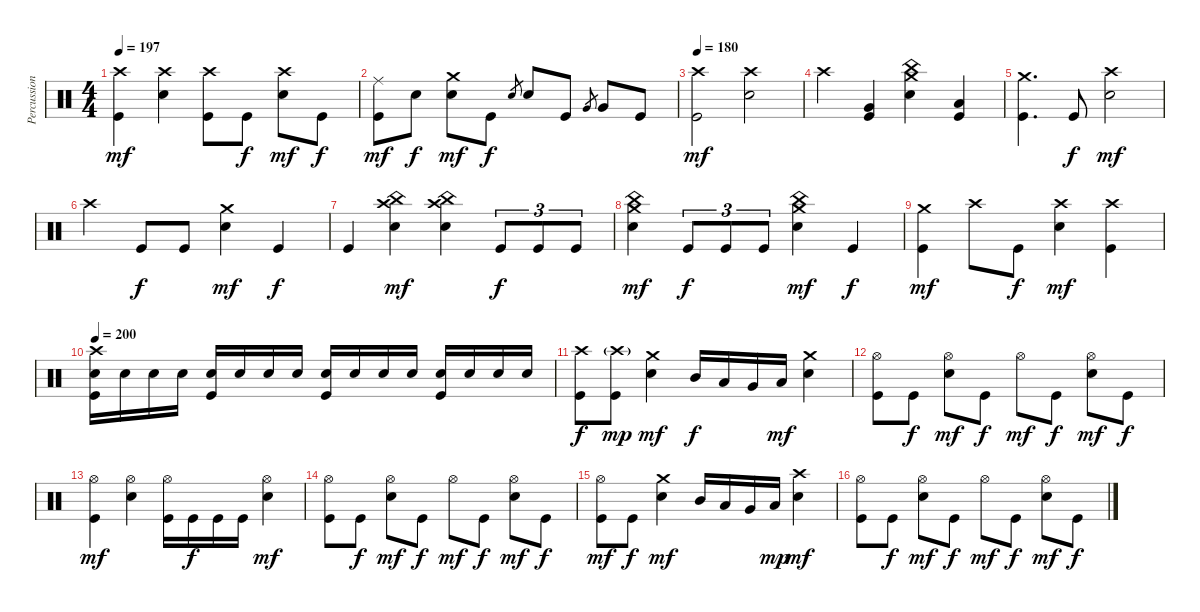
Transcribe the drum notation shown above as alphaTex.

\track ("Percussion" "Percussion") {instrument percussion}
\staff {score}
\articulation defaults
\ts (4 4)
\tempo 197
\clef neutral
\ks c
("Crash high (hit)" "Kick (hit)").4{dy mf} ("Crash high (hit)" "Electric Snare (hit)").4 ("Crash high (hit)" "Kick (hit)").8 "Kick (hit)".8{dy f} ("Crash high (hit)" "Electric Snare (hit)").8{dy mf} "Kick (hit)".8{dy f} |
("Ride (middle)" "Kick (hit)").8{dy mf} "Electric Snare (hit)".8{dy f} ("Crash medium (hit)" "Electric Snare (hit)").8{dy mf} "Kick (hit)".8{dy f} "Electric Snare (hit)".8{gr} "Electric Snare (hit)".8 "Kick (hit)".8 "Very Low Tom (hit)".8{gr} "Very Low Tom (hit)".8 "Kick (hit)".8 |
\tempo 180
("Crash high (hit)" "Kick (hit)").2{dy mf} ("Crash high (hit)" "Electric Snare (hit)").2 |
"Crash high (hit)".4 ("Very Low Tom (hit)" "Kick (hit)").4 ("China (hit)" "Crash medium (hit)" "Electric Snare (hit)").4 ("Low Floor Tom (hit)" "Kick (hit)").4 |
("Crash medium (hit)" "Kick (hit)").4{d} "Kick (hit)".8{dy f} ("Crash high (hit)" "Electric Snare (hit)").2{dy mf} |
"Crash high (hit)".4 "Kick (hit)".8{dy f} "Kick (hit)".8 ("Crash medium (hit)" "Electric Snare (hit)").4{dy mf} "Kick (hit)".4{dy f} |
"Kick (hit)".4 ("China (hit)" "Crash high (hit)" "Electric Snare (hit)").4{dy mf} ("China (hit)" "Crash high (hit)" "Electric Snare (hit)").4 "Kick (hit)".8{tu (3 2) dy f} "Kick (hit)".8{tu (3 2)} "Kick (hit)".8{tu (3 2)} |
("China (hit)" "Crash medium (hit)" "Electric Snare (hit)").4{dy mf} "Kick (hit)".8{tu (3 2) dy f} "Kick (hit)".8{tu (3 2)} "Kick (hit)".8{tu (3 2)} ("China (hit)" "Crash medium (hit)" "Electric Snare (hit)").4{dy mf} "Kick (hit)".4{dy f} |
("Crash medium (hit)" "Kick (hit)").4{dy mf} "Crash high (hit)".8 "Kick (hit)".8{dy f} ("Crash high (hit)" "Electric Snare (hit)").4{dy mf} ("Crash high (hit)" "Kick (hit)").4 |
\tempo 200
("Crash high (hit)" "Electric Snare (hit)" "Kick (hit)").16 "Electric Snare (hit)".16 "Electric Snare (hit)".16 "Electric Snare (hit)".16 ("Electric Snare (hit)" "Kick (hit)").16 "Electric Snare (hit)".16 "Electric Snare (hit)".16 "Electric Snare (hit)".16 ("Electric Snare (hit)" "Kick (hit)").16 "Electric Snare (hit)".16 "Electric Snare (hit)".16 "Electric Snare (hit)".16 ("Electric Snare (hit)" "Kick (hit)").16 "Electric Snare (hit)".16 "Electric Snare (hit)".16 "Electric Snare (hit)".16 |
("Crash high (hit)" "Kick (hit)").8{dy f} ("Crash high (hit)"{g} "Kick (hit)").8{dy mp} ("Crash medium (hit)" "Electric Snare (hit)").4{dy mf} "Mid Tom (hit)".16{dy f} "Low Tom (hit)".16 "Very Low Tom (hit)".16 "Low Floor Tom (hit)".16{dy mf} ("Crash medium (hit)" "Electric Snare (hit)").4 |
("Hi-Hat (open)" "Kick (hit)").8 "Kick (hit)".8{dy f} ("Hi-Hat (open)" "Electric Snare (hit)").8{dy mf} "Kick (hit)".8{dy f} "Hi-Hat (open)".8{dy mf} "Kick (hit)".8{dy f} ("Hi-Hat (open)" "Electric Snare (hit)").8{dy mf} "Kick (hit)".8{dy f} |
("Hi-Hat (open)" "Kick (hit)").4{dy mf} ("Hi-Hat (open)" "Electric Snare (hit)").4 ("Hi-Hat (open)" "Kick (hit)").16 "Kick (hit)".16{dy f} "Kick (hit)".16 "Kick (hit)".16 ("Hi-Hat (open)" "Electric Snare (hit)").4{dy mf} |
("Hi-Hat (open)" "Kick (hit)").8 "Kick (hit)".8{dy f} ("Hi-Hat (open)" "Electric Snare (hit)").8{dy mf} "Kick (hit)".8{dy f} "Hi-Hat (open)".8{dy mf} "Kick (hit)".8{dy f} ("Hi-Hat (open)" "Electric Snare (hit)").8{dy mf} "Kick (hit)".8{dy f} |
("Hi-Hat (open)" "Kick (hit)").8{dy mf} "Kick (hit)".8{dy f} ("Crash medium (hit)" "Electric Snare (hit)").4{dy mf} "Mid Tom (hit)".16 "Low Tom (hit)".16 "Very Low Tom (hit)".16 "Low Floor Tom (hit)".16{dy mp} ("Crash high (hit)" "Electric Snare (hit)").4{dy mf} |
("Hi-Hat (open)" "Kick (hit)").8 "Kick (hit)".8{dy f} ("Hi-Hat (open)" "Electric Snare (hit)").8{dy mf} "Kick (hit)".8{dy f} "Hi-Hat (open)".8{dy mf} "Kick (hit)".8{dy f} ("Hi-Hat (open)" "Electric Snare (hit)").8{dy mf} "Kick (hit)".8{dy f}
